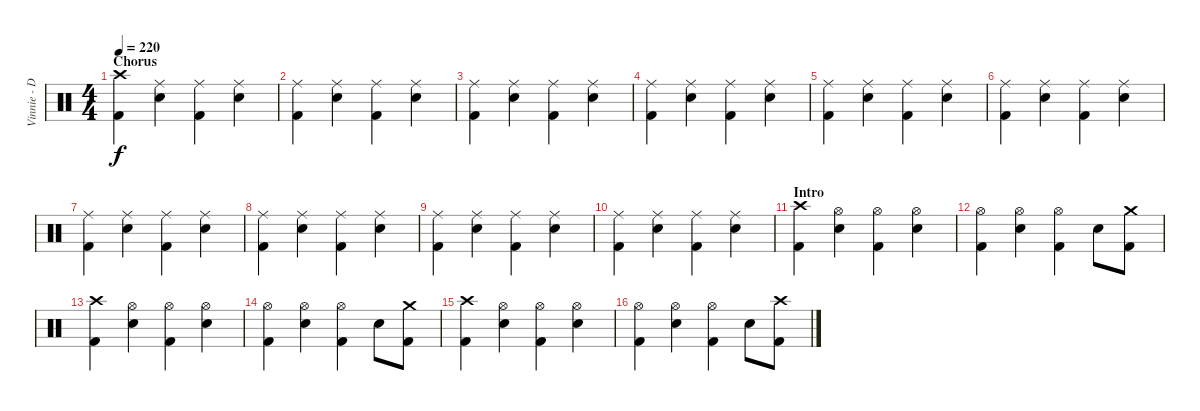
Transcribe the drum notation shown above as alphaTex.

\track ("Vinnie - Drums" "Vinnie - D") {instrument percussion}
\staff {score}
\articulation defaults
\ts (4 4)
\section ("" "Chorus")
\tempo 220
\clef neutral
\ks c
("Crash high (hit)" "Kick (hit) 2").4{dy f} ("Ride (middle)" "Electric Snare (hit)").4 ("Ride (middle)" "Kick (hit) 2").4 ("Ride (middle)" "Electric Snare (hit)").4 |
("Ride (middle)" "Kick (hit) 2").4 ("Ride (middle)" "Electric Snare (hit)").4 ("Ride (middle)" "Kick (hit) 2").4 ("Ride (middle)" "Electric Snare (hit)").4 |
("Ride (middle)" "Kick (hit) 2").4 ("Ride (middle)" "Electric Snare (hit)").4 ("Ride (middle)" "Kick (hit) 2").4 ("Ride (middle)" "Electric Snare (hit)").4 |
("Ride (middle)" "Kick (hit) 2").4 ("Ride (middle)" "Electric Snare (hit)").4 ("Ride (middle)" "Kick (hit) 2").4 ("Ride (middle)" "Electric Snare (hit)").4 |
("Ride (middle)" "Kick (hit) 2").4 ("Ride (middle)" "Electric Snare (hit)").4 ("Ride (middle)" "Kick (hit) 2").4 ("Ride (middle)" "Electric Snare (hit)").4 |
("Ride (middle)" "Kick (hit) 2").4 ("Ride (middle)" "Electric Snare (hit)").4 ("Ride (middle)" "Kick (hit) 2").4 ("Ride (middle)" "Electric Snare (hit)").4 |
("Ride (middle)" "Kick (hit) 2").4 ("Ride (middle)" "Electric Snare (hit)").4 ("Ride (middle)" "Kick (hit) 2").4 ("Ride (middle)" "Electric Snare (hit)").4 |
("Ride (middle)" "Kick (hit) 2").4 ("Ride (middle)" "Electric Snare (hit)").4 ("Ride (middle)" "Kick (hit) 2").4 ("Ride (middle)" "Electric Snare (hit)").4 |
("Ride (middle)" "Kick (hit) 2").4 ("Ride (middle)" "Electric Snare (hit)").4 ("Ride (middle)" "Kick (hit) 2").4 ("Ride (middle)" "Electric Snare (hit)").4 |
("Ride (middle)" "Kick (hit) 2").4 ("Ride (middle)" "Electric Snare (hit)").4 ("Ride (middle)" "Kick (hit) 2").4 ("Ride (middle)" "Electric Snare (hit)").4 |
\section ("" "Intro")
("Crash high (hit)" "Kick (hit) 2").4 ("Hi-Hat (open)" "Electric Snare (hit)").4 ("Hi-Hat (open)" "Kick (hit) 2").4 ("Hi-Hat (open)" "Electric Snare (hit)").4 |
("Hi-Hat (open)" "Kick (hit) 2").4 ("Hi-Hat (open)" "Electric Snare (hit)").4 ("Hi-Hat (open)" "Kick (hit) 2").4 "Electric Snare (hit)".8 ("Crash medium (hit)" "Kick (hit) 2").8 |
("Crash high (hit)" "Kick (hit) 2").4 ("Hi-Hat (open)" "Electric Snare (hit)").4 ("Hi-Hat (open)" "Kick (hit) 2").4 ("Hi-Hat (open)" "Electric Snare (hit)").4 |
("Hi-Hat (open)" "Kick (hit) 2").4 ("Hi-Hat (open)" "Electric Snare (hit)").4 ("Hi-Hat (open)" "Kick (hit) 2").4 "Electric Snare (hit)".8 ("Crash medium (hit)" "Kick (hit) 2").8 |
("Crash high (hit)" "Kick (hit) 2").4 ("Hi-Hat (open)" "Electric Snare (hit)").4 ("Hi-Hat (open)" "Kick (hit) 2").4 ("Hi-Hat (open)" "Electric Snare (hit)").4 |
("Hi-Hat (open)" "Kick (hit) 2").4 ("Hi-Hat (open)" "Electric Snare (hit)").4 ("Hi-Hat (open)" "Kick (hit) 2").4 "Electric Snare (hit)".8 ("Crash high (hit)" "Kick (hit) 2").8
